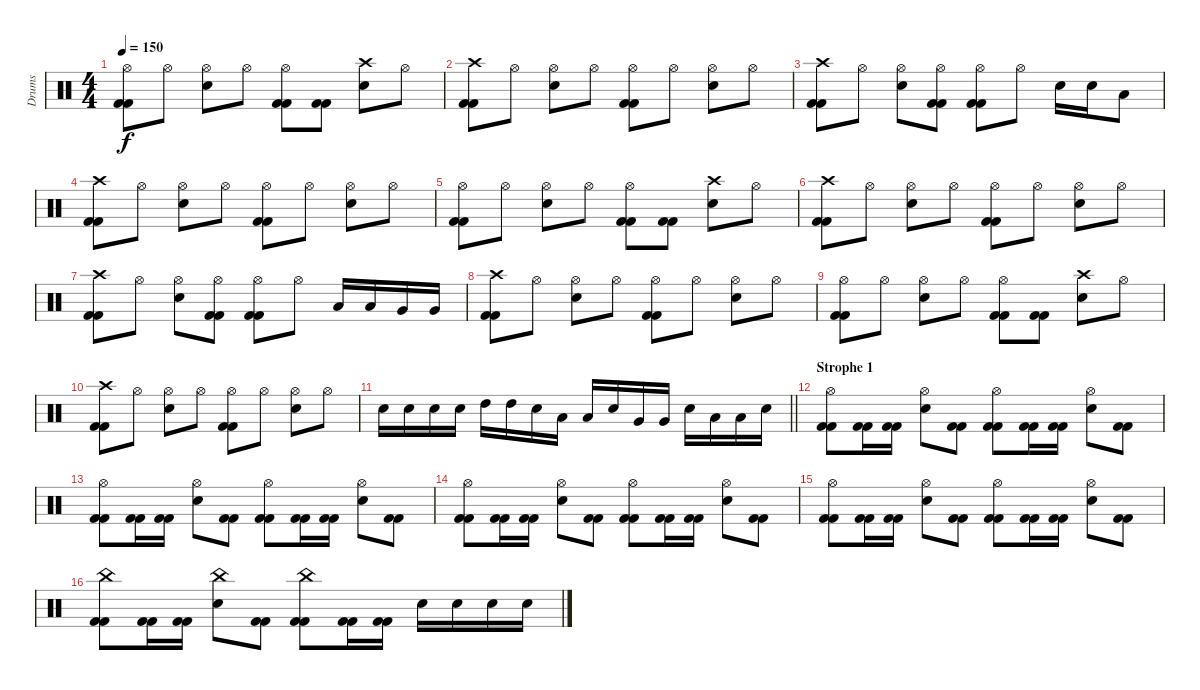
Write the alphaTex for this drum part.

\track ("Drums" "Drums") {instrument percussion}
\staff {score}
\articulation defaults
\ts (4 4)
\tempo 150
\clef neutral
\ks c
("Hi-Hat (open)" "Kick (hit) 2" "Kick (hit) 2").8{dy f} "Hi-Hat (open)".8 ("Electric Snare (hit)" "Hi-Hat (open)").8 "Hi-Hat (open)".8 ("Hi-Hat (open)" "Kick (hit) 2" "Kick (hit) 2").8 ("Kick (hit) 2" "Kick (hit) 2").8 ("Electric Snare (hit)" "Crash high (hit)").8 "Hi-Hat (open)".8 |
("Crash high (hit)" "Kick (hit) 2" "Kick (hit) 2").8 "Hi-Hat (open)".8 ("Electric Snare (hit)" "Hi-Hat (open)").8 "Hi-Hat (open)".8 ("Hi-Hat (open)" "Kick (hit) 2" "Kick (hit) 2").8 "Hi-Hat (open)".8 ("Electric Snare (hit)" "Hi-Hat (open)").8 "Hi-Hat (open)".8 |
("Crash high (hit)" "Kick (hit) 2" "Kick (hit) 2").8 "Hi-Hat (open)".8 ("Electric Snare (hit)" "Hi-Hat (open)").8 ("Kick (hit) 2" "Kick (hit) 2" "Hi-Hat (open)").8 ("Hi-Hat (open)" "Kick (hit) 2" "Kick (hit) 2").8 "Hi-Hat (open)".8 "Electric Snare (hit)".16 "Electric Snare (hit)".16 "Low Tom (hit)".8 |
("Crash high (hit)" "Kick (hit) 2" "Kick (hit) 2").8 "Hi-Hat (open)".8 ("Electric Snare (hit)" "Hi-Hat (open)").8 "Hi-Hat (open)".8 ("Hi-Hat (open)" "Kick (hit) 2" "Kick (hit) 2").8 "Hi-Hat (open)".8 ("Electric Snare (hit)" "Hi-Hat (open)").8 "Hi-Hat (open)".8 |
("Hi-Hat (open)" "Kick (hit) 2" "Kick (hit) 2").8 "Hi-Hat (open)".8 ("Electric Snare (hit)" "Hi-Hat (open)").8 "Hi-Hat (open)".8 ("Hi-Hat (open)" "Kick (hit) 2" "Kick (hit) 2").8 ("Kick (hit) 2" "Kick (hit) 2").8 ("Electric Snare (hit)" "Crash high (hit)").8 "Hi-Hat (open)".8 |
("Crash high (hit)" "Kick (hit) 2" "Kick (hit) 2").8 "Hi-Hat (open)".8 ("Electric Snare (hit)" "Hi-Hat (open)").8 "Hi-Hat (open)".8 ("Hi-Hat (open)" "Kick (hit) 2" "Kick (hit) 2").8 "Hi-Hat (open)".8 ("Electric Snare (hit)" "Hi-Hat (open)").8 "Hi-Hat (open)".8 |
("Crash high (hit)" "Kick (hit) 2" "Kick (hit) 2").8 "Hi-Hat (open)".8 ("Electric Snare (hit)" "Hi-Hat (open)").8 ("Kick (hit) 2" "Kick (hit) 2" "Hi-Hat (open)").8 ("Hi-Hat (open)" "Kick (hit) 2" "Kick (hit) 2").8 "Hi-Hat (open)".8 "Low Tom (hit)".16 "Low Tom (hit)".16 "Very Low Tom (hit)".16 "Very Low Tom (hit)".16 |
("Crash high (hit)" "Kick (hit) 2" "Kick (hit) 2").8 "Hi-Hat (open)".8 ("Electric Snare (hit)" "Hi-Hat (open)").8 "Hi-Hat (open)".8 ("Hi-Hat (open)" "Kick (hit) 2" "Kick (hit) 2").8 "Hi-Hat (open)".8 ("Electric Snare (hit)" "Hi-Hat (open)").8 "Hi-Hat (open)".8 |
("Hi-Hat (open)" "Kick (hit) 2" "Kick (hit) 2").8 "Hi-Hat (open)".8 ("Electric Snare (hit)" "Hi-Hat (open)").8 "Hi-Hat (open)".8 ("Hi-Hat (open)" "Kick (hit) 2" "Kick (hit) 2").8 ("Kick (hit) 2" "Kick (hit) 2").8 ("Electric Snare (hit)" "Crash high (hit)").8 "Hi-Hat (open)".8 |
("Crash high (hit)" "Kick (hit) 2" "Kick (hit) 2").8 "Hi-Hat (open)".8 ("Electric Snare (hit)" "Hi-Hat (open)").8 "Hi-Hat (open)".8 ("Hi-Hat (open)" "Kick (hit) 2" "Kick (hit) 2").8 "Hi-Hat (open)".8 ("Electric Snare (hit)" "Hi-Hat (open)").8 "Hi-Hat (open)".8 |
\barLineRight lightlight "Electric Snare (hit)".16 "Electric Snare (hit)".16 "Electric Snare (hit)".16 "Electric Snare (hit)".16 "High Tom (hit)".16 "High Tom (hit)".16 "Electric Snare (hit)".16 "Low Tom (hit)".16 "Low Tom (hit)".16 "Electric Snare (hit)".16 "Very Low Tom (hit)".16 "Very Low Tom (hit)".16 "Electric Snare (hit)".16 "Low Floor Tom (hit)".16 "Low Floor Tom (hit)".16 "Electric Snare (hit)".16
|
\section ("" "Strophe 1")
("Hi-Hat (open)" "Kick (hit) 2" "Kick (hit) 2").8 ("Kick (hit) 2" "Kick (hit) 2").16 ("Kick (hit) 2" "Kick (hit) 2").16 ("Electric Snare (hit)" "Hi-Hat (open)").8 ("Kick (hit) 2" "Kick (hit) 2").8 ("Hi-Hat (open)" "Kick (hit) 2" "Kick (hit) 2").8 ("Kick (hit) 2" "Kick (hit) 2").16 ("Kick (hit) 2" "Kick (hit) 2").16 ("Electric Snare (hit)" "Hi-Hat (open)").8 ("Kick (hit) 2" "Kick (hit) 2").8 |
("Hi-Hat (open)" "Kick (hit) 2" "Kick (hit) 2").8 ("Kick (hit) 2" "Kick (hit) 2").16 ("Kick (hit) 2" "Kick (hit) 2").16 ("Electric Snare (hit)" "Hi-Hat (open)").8 ("Kick (hit) 2" "Kick (hit) 2").8 ("Hi-Hat (open)" "Kick (hit) 2" "Kick (hit) 2").8 ("Kick (hit) 2" "Kick (hit) 2").16 ("Kick (hit) 2" "Kick (hit) 2").16 ("Electric Snare (hit)" "Hi-Hat (open)").8 ("Kick (hit) 2" "Kick (hit) 2").8 |
("Hi-Hat (open)" "Kick (hit) 2" "Kick (hit) 2").8 ("Kick (hit) 2" "Kick (hit) 2").16 ("Kick (hit) 2" "Kick (hit) 2").16 ("Electric Snare (hit)" "Hi-Hat (open)").8 ("Kick (hit) 2" "Kick (hit) 2").8 ("Hi-Hat (open)" "Kick (hit) 2" "Kick (hit) 2").8 ("Kick (hit) 2" "Kick (hit) 2").16 ("Kick (hit) 2" "Kick (hit) 2").16 ("Electric Snare (hit)" "Hi-Hat (open)").8 ("Kick (hit) 2" "Kick (hit) 2").8 |
("Hi-Hat (open)" "Kick (hit) 2" "Kick (hit) 2").8 ("Kick (hit) 2" "Kick (hit) 2").16 ("Kick (hit) 2" "Kick (hit) 2").16 ("Electric Snare (hit)" "Hi-Hat (open)").8 ("Kick (hit) 2" "Kick (hit) 2").8 ("Hi-Hat (open)" "Kick (hit) 2" "Kick (hit) 2").8 ("Kick (hit) 2" "Kick (hit) 2").16 ("Kick (hit) 2" "Kick (hit) 2").16 ("Electric Snare (hit)" "Hi-Hat (open)").8 ("Kick (hit) 2" "Kick (hit) 2").8 |
("China (hit)" "Kick (hit) 2" "Kick (hit) 2").8 ("Kick (hit) 2" "Kick (hit) 2").16 ("Kick (hit) 2" "Kick (hit) 2").16 ("Electric Snare (hit)" "China (hit)").8 ("Kick (hit) 2" "Kick (hit) 2").8 ("China (hit)" "Kick (hit) 2" "Kick (hit) 2").8 ("Kick (hit) 2" "Kick (hit) 2").16 ("Kick (hit) 2" "Kick (hit) 2").16 "Electric Snare (hit)".16 "Electric Snare (hit)".16 "Electric Snare (hit)".16 "Electric Snare (hit)".16
